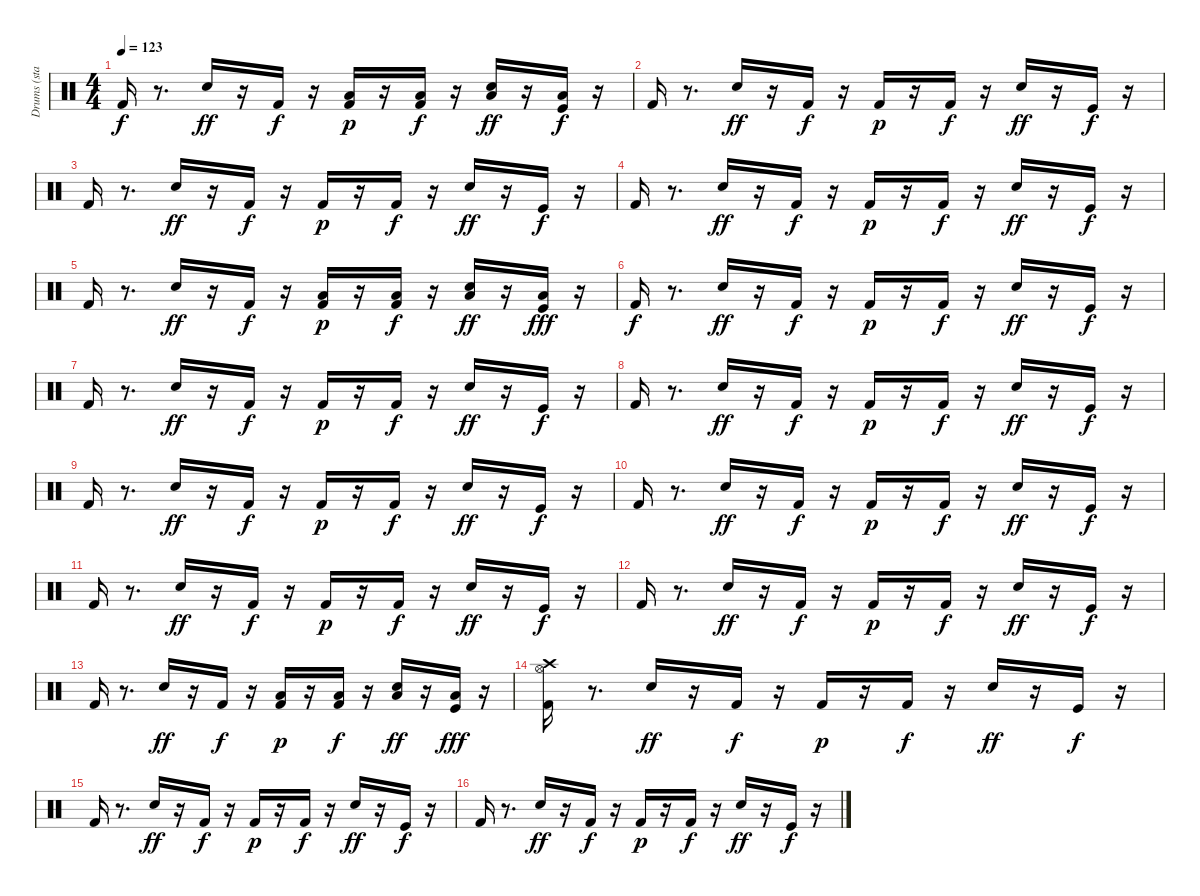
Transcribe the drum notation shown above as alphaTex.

\track ("Drums (standard set)" "Drums (sta") {instrument percussion}
\staff {score}
\articulation defaults
\ts (4 4)
\tempo 123
\clef neutral
\ks c "Kick (hit) 2".16{dy f}
r.8{d} "Snare (hit) 2".16{dy ff} r.16 "Kick (hit) 2".16{dy f} r.16 ("Kick (hit) 2" "Low Tom (hit)").16{dy p} r.16 ("Kick (hit) 2" "Low Tom (hit)").16{dy f} r.16 ("Snare (hit) 2" "Low Tom (hit)").16{dy ff} r.16 ("Kick (hit)" "Low Tom (hit)").16{dy f} r.16 |
"Kick (hit) 2".16 r.8{d} "Snare (hit) 2".16{dy ff} r.16 "Kick (hit) 2".16{dy f} r.16 "Kick (hit) 2".16{dy p} r.16 "Kick (hit) 2".16{dy f} r.16 "Snare (hit) 2".16{dy ff} r.16 "Kick (hit)".16{dy f} r.16 |
"Kick (hit) 2".16 r.8{d} "Snare (hit) 2".16{dy ff} r.16 "Kick (hit) 2".16{dy f} r.16 "Kick (hit) 2".16{dy p} r.16 "Kick (hit) 2".16{dy f} r.16 "Snare (hit) 2".16{dy ff} r.16 "Kick (hit)".16{dy f} r.16 |
"Kick (hit) 2".16 r.8{d} "Snare (hit) 2".16{dy ff} r.16 "Kick (hit) 2".16{dy f} r.16 "Kick (hit) 2".16{dy p} r.16 "Kick (hit) 2".16{dy f} r.16 "Snare (hit) 2".16{dy ff} r.16 "Kick (hit)".16{dy f} r.16 |
"Kick (hit) 2".16 r.8{d} "Snare (hit) 2".16{dy ff} r.16 "Kick (hit) 2".16{dy f} r.16 ("Kick (hit) 2" "Low Tom (hit)").16{dy p} r.16 ("Kick (hit) 2" "Low Tom (hit)").16{dy f} r.16 ("Snare (hit) 2" "Low Tom (hit)").16{dy ff} r.16 ("Kick (hit)" "Low Tom (hit)").16{dy fff} r.16 |
"Kick (hit) 2".16{dy f} r.8{d} "Snare (hit) 2".16{dy ff} r.16 "Kick (hit) 2".16{dy f} r.16 "Kick (hit) 2".16{dy p} r.16 "Kick (hit) 2".16{dy f} r.16 "Snare (hit) 2".16{dy ff} r.16 "Kick (hit)".16{dy f} r.16 |
"Kick (hit) 2".16 r.8{d} "Snare (hit) 2".16{dy ff} r.16 "Kick (hit) 2".16{dy f} r.16 "Kick (hit) 2".16{dy p} r.16 "Kick (hit) 2".16{dy f} r.16 "Snare (hit) 2".16{dy ff} r.16 "Kick (hit)".16{dy f} r.16 |
"Kick (hit) 2".16 r.8{d} "Snare (hit) 2".16{dy ff} r.16 "Kick (hit) 2".16{dy f} r.16 "Kick (hit) 2".16{dy p} r.16 "Kick (hit) 2".16{dy f} r.16 "Snare (hit) 2".16{dy ff} r.16 "Kick (hit)".16{dy f} r.16 |
"Kick (hit) 2".16 r.8{d} "Snare (hit) 2".16{dy ff} r.16 "Kick (hit) 2".16{dy f} r.16 "Kick (hit) 2".16{dy p} r.16 "Kick (hit) 2".16{dy f} r.16 "Snare (hit) 2".16{dy ff} r.16 "Kick (hit)".16{dy f} r.16 |
"Kick (hit) 2".16 r.8{d} "Snare (hit) 2".16{dy ff} r.16 "Kick (hit) 2".16{dy f} r.16 "Kick (hit) 2".16{dy p} r.16 "Kick (hit) 2".16{dy f} r.16 "Snare (hit) 2".16{dy ff} r.16 "Kick (hit)".16{dy f} r.16 |
"Kick (hit) 2".16 r.8{d} "Snare (hit) 2".16{dy ff} r.16 "Kick (hit) 2".16{dy f} r.16 "Kick (hit) 2".16{dy p} r.16 "Kick (hit) 2".16{dy f} r.16 "Snare (hit) 2".16{dy ff} r.16 "Kick (hit)".16{dy f} r.16 |
"Kick (hit) 2".16 r.8{d} "Snare (hit) 2".16{dy ff} r.16 "Kick (hit) 2".16{dy f} r.16 "Kick (hit) 2".16{dy p} r.16 "Kick (hit) 2".16{dy f} r.16 "Snare (hit) 2".16{dy ff} r.16 "Kick (hit)".16{dy f} r.16 |
"Kick (hit) 2".16 r.8{d} "Snare (hit) 2".16{dy ff} r.16 "Kick (hit) 2".16{dy f} r.16 ("Kick (hit) 2" "Low Tom (hit)").16{dy p} r.16 ("Kick (hit) 2" "Low Tom (hit)").16{dy f} r.16 ("Snare (hit) 2" "Low Tom (hit)").16{dy ff} r.16 ("Kick (hit)" "Low Tom (hit)").16{dy fff} r.16 |
("Kick (hit) 2" "Hi-Hat (open)" "Crash high (hit)").16 r.8{d} "Snare (hit) 2".16{dy ff} r.16 "Kick (hit) 2".16{dy f} r.16 "Kick (hit) 2".16{dy p} r.16 "Kick (hit) 2".16{dy f} r.16 "Snare (hit) 2".16{dy ff} r.16 "Kick (hit)".16{dy f} r.16 |
"Kick (hit) 2".16 r.8{d} "Snare (hit) 2".16{dy ff} r.16 "Kick (hit) 2".16{dy f} r.16 "Kick (hit) 2".16{dy p} r.16 "Kick (hit) 2".16{dy f} r.16 "Snare (hit) 2".16{dy ff} r.16 "Kick (hit)".16{dy f} r.16 |
"Kick (hit) 2".16 r.8{d} "Snare (hit) 2".16{dy ff} r.16 "Kick (hit) 2".16{dy f} r.16 "Kick (hit) 2".16{dy p} r.16 "Kick (hit) 2".16{dy f} r.16 "Snare (hit) 2".16{dy ff} r.16 "Kick (hit)".16{dy f} r.16
